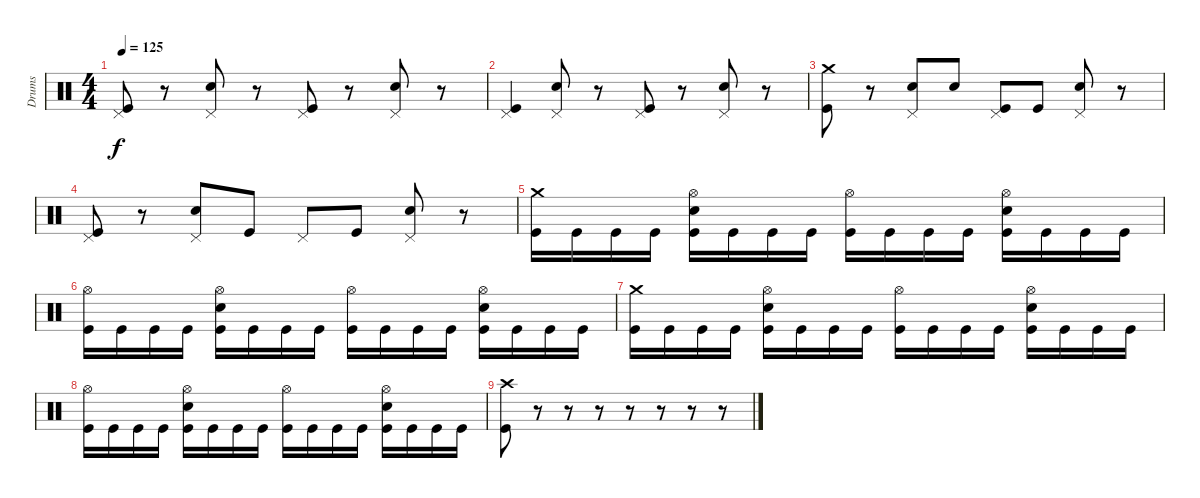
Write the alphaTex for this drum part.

\track ("Drums" "Drums") {instrument percussion}
\staff {score}
\articulation defaults
\ts (4 4)
\tempo 125
\clef neutral
\ks c
("Pedal Hi-Hat (hit)" "Kick (hit)").8{dy f} r.8 ("Pedal Hi-Hat (hit)" "Electric Snare (hit)").8 r.8 ("Pedal Hi-Hat (hit)" "Kick (hit)").8 r.8 ("Pedal Hi-Hat (hit)" "Electric Snare (hit)").8 r.8 |
("Pedal Hi-Hat (hit)" "Kick (hit)").4 ("Pedal Hi-Hat (hit)" "Electric Snare (hit)").8 r.8 ("Pedal Hi-Hat (hit)" "Kick (hit)").8 r.8 ("Pedal Hi-Hat (hit)" "Electric Snare (hit)").8 r.8 |
("Crash medium (hit)" "Kick (hit)").8 r.8 ("Pedal Hi-Hat (hit)" "Electric Snare (hit)").8 "Snare (hit)".8 ("Pedal Hi-Hat (hit)" "Kick (hit)").8 "Kick (hit)".8 ("Pedal Hi-Hat (hit)" "Electric Snare (hit)").8 r.8 |
("Pedal Hi-Hat (hit)" "Kick (hit)").8 r.8 ("Pedal Hi-Hat (hit)" "Electric Snare (hit)").8 "Kick (hit)".8 "Pedal Hi-Hat (hit)".8 "Kick (hit)".8 ("Pedal Hi-Hat (hit)" "Electric Snare (hit)").8 r.8 |
("Crash medium (hit)" "Kick (hit)").16 "Kick (hit)".16 "Kick (hit)".16 "Kick (hit)".16 ("Hi-Hat (open)" "Electric Snare (hit)" "Kick (hit)").16 "Kick (hit)".16 "Kick (hit)".16 "Kick (hit)".16 ("Hi-Hat (open)" "Kick (hit)").16 "Kick (hit)".16 "Kick (hit)".16 "Kick (hit)".16 ("Hi-Hat (open)" "Electric Snare (hit)" "Kick (hit)").16 "Kick (hit)".16 "Kick (hit)".16 "Kick (hit)".16 |
("Hi-Hat (open)" "Kick (hit)").16 "Kick (hit)".16 "Kick (hit)".16 "Kick (hit)".16 ("Hi-Hat (open)" "Electric Snare (hit)" "Kick (hit)").16 "Kick (hit)".16 "Kick (hit)".16 "Kick (hit)".16 ("Hi-Hat (open)" "Kick (hit)").16 "Kick (hit)".16 "Kick (hit)".16 "Kick (hit)".16 ("Hi-Hat (open)" "Electric Snare (hit)" "Kick (hit)").16 "Kick (hit)".16 "Kick (hit)".16 "Kick (hit)".16 |
("Crash medium (hit)" "Kick (hit)").16 "Kick (hit)".16 "Kick (hit)".16 "Kick (hit)".16 ("Hi-Hat (open)" "Electric Snare (hit)" "Kick (hit)").16 "Kick (hit)".16 "Kick (hit)".16 "Kick (hit)".16 ("Hi-Hat (open)" "Kick (hit)").16 "Kick (hit)".16 "Kick (hit)".16 "Kick (hit)".16 ("Hi-Hat (open)" "Electric Snare (hit)" "Kick (hit)").16 "Kick (hit)".16 "Kick (hit)".16 "Kick (hit)".16 |
("Hi-Hat (open)" "Kick (hit)").16 "Kick (hit)".16 "Kick (hit)".16 "Kick (hit)".16 ("Hi-Hat (open)" "Electric Snare (hit)" "Kick (hit)").16 "Kick (hit)".16 "Kick (hit)".16 "Kick (hit)".16 ("Hi-Hat (open)" "Kick (hit)").16 "Kick (hit)".16 "Kick (hit)".16 "Kick (hit)".16 ("Hi-Hat (open)" "Electric Snare (hit)" "Kick (hit)").16 "Kick (hit)".16 "Kick (hit)".16 "Kick (hit)".16 |
("Crash high (hit)" "Kick (hit)").8 r.8 r.8 r.8 r.8 r.8 r.8 r.8
